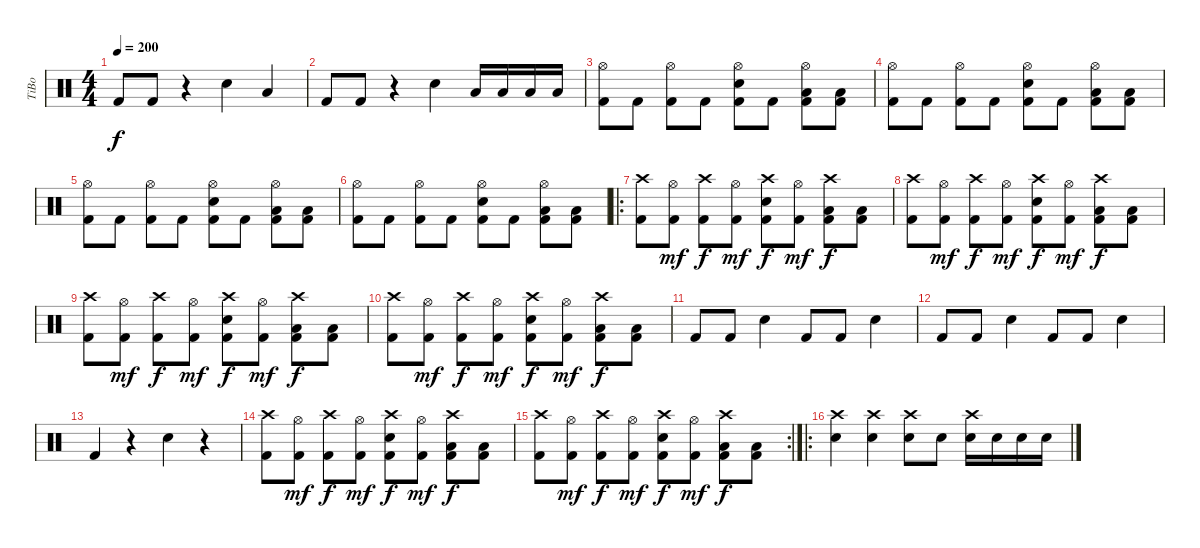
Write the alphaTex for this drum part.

\track ("TiBo" "TiBo") {instrument percussion}
\staff {score}
\articulation defaults
\ts (4 4)
\tempo 200
\clef neutral
\ks c "Kick (hit) 2".8{dy f} "Kick (hit) 2".8
r.4 "Snare (hit) 2".4 "Low Tom (hit)".4 |
"Kick (hit) 2".8 "Kick (hit) 2".8 r.4 "Snare (hit) 2".4 "Low Tom (hit)".16 "Low Tom (hit)".16 "Low Tom (hit)".16 "Low Tom (hit)".16 |
("Hi-Hat (open)" "Kick (hit) 2").8 "Kick (hit) 2".8 ("Hi-Hat (open)" "Kick (hit) 2").8 "Kick (hit) 2".8 ("Hi-Hat (open)" "Snare (hit) 2" "Kick (hit) 2").8 "Kick (hit) 2".8 ("Hi-Hat (open)" "Low Tom (hit)" "Kick (hit) 2").8 ("Low Tom (hit)" "Kick (hit) 2").8 |
("Hi-Hat (open)" "Kick (hit) 2").8 "Kick (hit) 2".8 ("Hi-Hat (open)" "Kick (hit) 2").8 "Kick (hit) 2".8 ("Hi-Hat (open)" "Snare (hit) 2" "Kick (hit) 2").8 "Kick (hit) 2".8 ("Hi-Hat (open)" "Low Tom (hit)" "Kick (hit) 2").8 ("Low Tom (hit)" "Kick (hit) 2").8 |
("Hi-Hat (open)" "Kick (hit) 2").8 "Kick (hit) 2".8 ("Hi-Hat (open)" "Kick (hit) 2").8 "Kick (hit) 2".8 ("Hi-Hat (open)" "Snare (hit) 2" "Kick (hit) 2").8 "Kick (hit) 2".8 ("Hi-Hat (open)" "Low Tom (hit)" "Kick (hit) 2").8 ("Low Tom (hit)" "Kick (hit) 2").8 |
("Hi-Hat (open)" "Kick (hit) 2").8 "Kick (hit) 2".8 ("Hi-Hat (open)" "Kick (hit) 2").8 "Kick (hit) 2".8 ("Hi-Hat (open)" "Snare (hit) 2" "Kick (hit) 2").8 "Kick (hit) 2".8 ("Hi-Hat (open)" "Low Tom (hit)" "Kick (hit) 2").8 ("Low Tom (hit)" "Kick (hit) 2").8 |
\ro
("Crash high (hit)" "Kick (hit) 2").8 ("Hi-Hat (open)" "Kick (hit) 2").8{dy mf} ("Crash high (hit)" "Kick (hit) 2").8{dy f} ("Hi-Hat (open)" "Kick (hit) 2").8{dy mf} ("Crash high (hit)" "Snare (hit) 2" "Kick (hit) 2").8{dy f} ("Hi-Hat (open)" "Kick (hit) 2").8{dy mf} ("Crash high (hit)" "Low Tom (hit)" "Kick (hit) 2").8{dy f} ("Low Tom (hit)" "Kick (hit) 2").8 |
("Crash high (hit)" "Kick (hit) 2").8 ("Hi-Hat (open)" "Kick (hit) 2").8{dy mf} ("Crash high (hit)" "Kick (hit) 2").8{dy f} ("Hi-Hat (open)" "Kick (hit) 2").8{dy mf} ("Crash high (hit)" "Snare (hit) 2" "Kick (hit) 2").8{dy f} ("Hi-Hat (open)" "Kick (hit) 2").8{dy mf} ("Crash high (hit)" "Low Tom (hit)" "Kick (hit) 2").8{dy f} ("Low Tom (hit)" "Kick (hit) 2").8 |
("Crash high (hit)" "Kick (hit) 2").8 ("Hi-Hat (open)" "Kick (hit) 2").8{dy mf} ("Crash high (hit)" "Kick (hit) 2").8{dy f} ("Hi-Hat (open)" "Kick (hit) 2").8{dy mf} ("Crash high (hit)" "Snare (hit) 2" "Kick (hit) 2").8{dy f} ("Hi-Hat (open)" "Kick (hit) 2").8{dy mf} ("Crash high (hit)" "Low Tom (hit)" "Kick (hit) 2").8{dy f} ("Low Tom (hit)" "Kick (hit) 2").8 |
("Crash high (hit)" "Kick (hit) 2").8 ("Hi-Hat (open)" "Kick (hit) 2").8{dy mf} ("Crash high (hit)" "Kick (hit) 2").8{dy f} ("Hi-Hat (open)" "Kick (hit) 2").8{dy mf} ("Crash high (hit)" "Snare (hit) 2" "Kick (hit) 2").8{dy f} ("Hi-Hat (open)" "Kick (hit) 2").8{dy mf} ("Crash high (hit)" "Low Tom (hit)" "Kick (hit) 2").8{dy f} ("Low Tom (hit)" "Kick (hit) 2").8 |
"Kick (hit) 2".8 "Kick (hit) 2".8 "Snare (hit) 2".4 "Kick (hit) 2".8 "Kick (hit) 2".8 "Snare (hit) 2".4 |
"Kick (hit) 2".8 "Kick (hit) 2".8 "Snare (hit) 2".4 "Kick (hit) 2".8 "Kick (hit) 2".8 "Snare (hit) 2".4 |
"Kick (hit) 2".4 r.4 "Snare (hit) 2".4 r.4 |
("Crash high (hit)" "Kick (hit) 2").8 ("Hi-Hat (open)" "Kick (hit) 2").8{dy mf} ("Crash high (hit)" "Kick (hit) 2").8{dy f} ("Hi-Hat (open)" "Kick (hit) 2").8{dy mf} ("Crash high (hit)" "Snare (hit) 2" "Kick (hit) 2").8{dy f} ("Hi-Hat (open)" "Kick (hit) 2").8{dy mf} ("Crash high (hit)" "Low Tom (hit)" "Kick (hit) 2").8{dy f} ("Low Tom (hit)" "Kick (hit) 2").8 |
\rc 2
("Crash high (hit)" "Kick (hit) 2").8 ("Hi-Hat (open)" "Kick (hit) 2").8{dy mf} ("Crash high (hit)" "Kick (hit) 2").8{dy f} ("Hi-Hat (open)" "Kick (hit) 2").8{dy mf} ("Crash high (hit)" "Snare (hit) 2" "Kick (hit) 2").8{dy f} ("Hi-Hat (open)" "Kick (hit) 2").8{dy mf} ("Crash high (hit)" "Low Tom (hit)" "Kick (hit) 2").8{dy f} ("Low Tom (hit)" "Kick (hit) 2").8 |
\ro
("Crash high (hit)" "Snare (hit) 2").4 ("Crash high (hit)" "Snare (hit) 2").4 ("Crash high (hit)" "Snare (hit) 2").8 "Snare (hit) 2".8 ("Crash high (hit)" "Snare (hit) 2").16 "Snare (hit) 2".16 "Snare (hit) 2".16 "Snare (hit) 2".16
